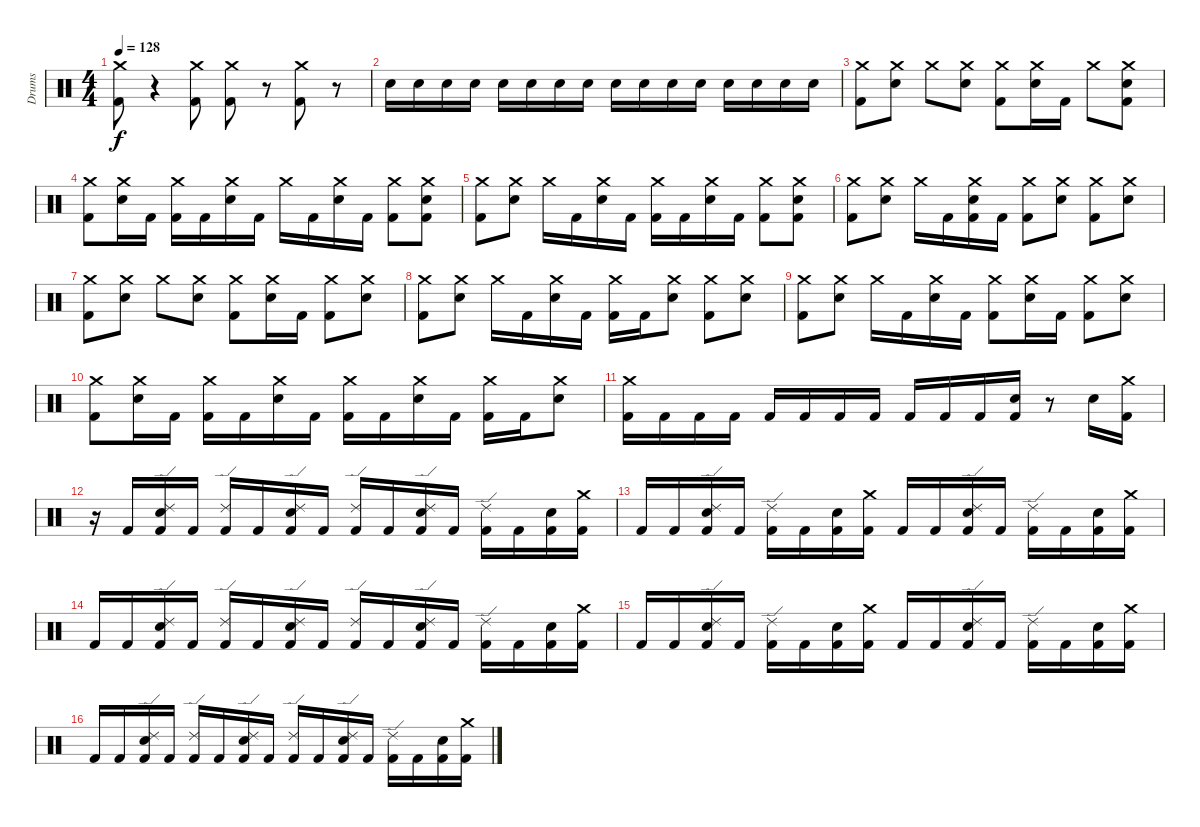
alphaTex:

\track ("Drums" "Drums") {instrument percussion}
\staff {score}
\articulation defaults
\ts (4 4)
\tempo 128
\clef neutral
\ks c
("Crash medium (hit)" "Kick (hit) 2").8{dy f} r.4 ("Crash medium (hit)" "Kick (hit) 2").8 ("Crash medium (hit)" "Kick (hit) 2").8 r.8 ("Crash medium (hit)" "Kick (hit) 2").8 r.8 |
"Snare (hit) 2".16 "Snare (hit) 2".16 "Snare (hit) 2".16 "Snare (hit) 2".16 "Snare (hit) 2".16 "Snare (hit) 2".16 "Snare (hit) 2".16 "Snare (hit) 2".16 "Snare (hit) 2".16 "Snare (hit) 2".16 "Snare (hit) 2".16 "Snare (hit) 2".16 "Snare (hit) 2".16 "Snare (hit) 2".16 "Snare (hit) 2".16 "Snare (hit) 2".16 |
("Crash medium (hit)" "Kick (hit) 2").8 ("Crash medium (hit)" "Snare (hit) 2").8 "Crash medium (hit)".8 ("Crash medium (hit)" "Snare (hit) 2").8 ("Crash medium (hit)" "Kick (hit) 2").8 ("Crash medium (hit)" "Snare (hit) 2").16 "Kick (hit) 2".16 "Crash medium (hit)".8 ("Crash medium (hit)" "Snare (hit) 2" "Kick (hit) 2").8 |
("Crash medium (hit)" "Kick (hit) 2").8 ("Crash medium (hit)" "Snare (hit) 2").16 "Kick (hit) 2".16 ("Crash medium (hit)" "Kick (hit) 2").16 "Kick (hit) 2".16 ("Crash medium (hit)" "Snare (hit) 2").16 "Kick (hit) 2".16 "Crash medium (hit)".16 "Kick (hit) 2".16 ("Crash medium (hit)" "Snare (hit) 2").16 "Kick (hit) 2".16 ("Crash medium (hit)" "Kick (hit) 2").8 ("Crash medium (hit)" "Snare (hit) 2" "Kick (hit) 2").8 |
("Crash medium (hit)" "Kick (hit) 2").8 ("Crash medium (hit)" "Snare (hit) 2").8 "Crash medium (hit)".16 "Kick (hit) 2".16 ("Crash medium (hit)" "Snare (hit) 2").16 "Kick (hit) 2".16 ("Crash medium (hit)" "Kick (hit) 2").16 "Kick (hit) 2".16 ("Crash medium (hit)" "Snare (hit) 2").16 "Kick (hit) 2".16 ("Crash medium (hit)" "Kick (hit) 2").8 ("Crash medium (hit)" "Snare (hit) 2" "Kick (hit) 2").8 |
("Crash medium (hit)" "Kick (hit) 2").8 ("Crash medium (hit)" "Snare (hit) 2").8 "Crash medium (hit)".16 "Kick (hit) 2".16 ("Crash medium (hit)" "Snare (hit) 2" "Kick (hit) 2").16 "Kick (hit) 2".16 ("Crash medium (hit)" "Kick (hit) 2").8 ("Crash medium (hit)" "Snare (hit) 2").8 ("Crash medium (hit)" "Kick (hit) 2").8 ("Crash medium (hit)" "Snare (hit) 2").8 |
("Crash medium (hit)" "Kick (hit) 2").8 ("Crash medium (hit)" "Snare (hit) 2").8 "Crash medium (hit)".8 ("Crash medium (hit)" "Snare (hit) 2").8 ("Crash medium (hit)" "Kick (hit) 2").8 ("Crash medium (hit)" "Snare (hit) 2").16 "Kick (hit) 2".16 ("Crash medium (hit)" "Kick (hit) 2").8 ("Crash medium (hit)" "Snare (hit) 2").8 |
("Crash medium (hit)" "Kick (hit) 2").8 ("Crash medium (hit)" "Snare (hit) 2").8 "Crash medium (hit)".16 "Kick (hit) 2".16 ("Crash medium (hit)" "Snare (hit) 2").16 "Kick (hit) 2".16 ("Crash medium (hit)" "Kick (hit) 2").16 "Kick (hit) 2".16 ("Crash medium (hit)" "Snare (hit) 2").8 ("Crash medium (hit)" "Kick (hit) 2").8 ("Crash medium (hit)" "Snare (hit) 2").8 |
("Crash medium (hit)" "Kick (hit) 2").8 ("Crash medium (hit)" "Snare (hit) 2").8 "Crash medium (hit)".16 "Kick (hit) 2".16 ("Crash medium (hit)" "Snare (hit) 2").16 "Kick (hit) 2".16 ("Crash medium (hit)" "Kick (hit) 2").8 ("Crash medium (hit)" "Snare (hit) 2").16 "Kick (hit) 2".16 ("Crash medium (hit)" "Kick (hit) 2").8 ("Crash medium (hit)" "Snare (hit) 2").8 |
("Crash medium (hit)" "Kick (hit) 2").8 ("Crash medium (hit)" "Snare (hit) 2").16 "Kick (hit) 2".16 ("Crash medium (hit)" "Kick (hit) 2").16 "Kick (hit) 2".16 ("Crash medium (hit)" "Snare (hit) 2").16 "Kick (hit) 2".16 ("Crash medium (hit)" "Kick (hit) 2").16 "Kick (hit) 2".16 ("Crash medium (hit)" "Snare (hit) 2").16 "Kick (hit) 2".16 ("Crash medium (hit)" "Kick (hit) 2").16 "Kick (hit) 2".16 ("Crash medium (hit)" "Snare (hit) 2").8 |
("Crash medium (hit)" "Kick (hit) 2").16 "Kick (hit) 2".16 "Kick (hit) 2".16 "Kick (hit) 2".16 "Kick (hit) 2".16 "Kick (hit) 2".16 "Kick (hit) 2".16 "Kick (hit) 2".16 "Kick (hit) 2".16 "Kick (hit) 2".16 "Kick (hit) 2".16 ("Snare (hit) 2" "Kick (hit) 2").16 r.8 "Snare (hit) 2".16 ("Crash medium (hit)" "Kick (hit) 2").16 |
r.16 "Kick (hit) 2".16 ("Ride (edge) 2" "Snare (hit) 2" "Kick (hit) 2").16 "Kick (hit) 2".16 ("Ride (edge) 2" "Kick (hit) 2").16 "Kick (hit) 2".16 ("Ride (edge) 2" "Snare (hit) 2" "Kick (hit) 2").16 "Kick (hit) 2".16 ("Ride (edge) 2" "Kick (hit) 2").16 "Kick (hit) 2".16 ("Ride (edge) 2" "Snare (hit) 2" "Kick (hit) 2").16 "Kick (hit) 2".16 ("Ride (edge) 2" "Kick (hit) 2").16 "Kick (hit) 2".16 ("Snare (hit) 2" "Kick (hit) 2").16 ("Crash medium (hit)" "Kick (hit) 2").16 |
"Kick (hit) 2".16 "Kick (hit) 2".16 ("Ride (edge) 2" "Snare (hit) 2" "Kick (hit) 2").16 "Kick (hit) 2".16 ("Ride (edge) 2" "Kick (hit) 2").16 "Kick (hit) 2".16 ("Snare (hit) 2" "Kick (hit) 2").16 ("Crash medium (hit)" "Kick (hit) 2").16 "Kick (hit) 2".16 "Kick (hit) 2".16 ("Ride (edge) 2" "Snare (hit) 2" "Kick (hit) 2").16 "Kick (hit) 2".16 ("Ride (edge) 2" "Kick (hit) 2").16 "Kick (hit) 2".16 ("Snare (hit) 2" "Kick (hit) 2").16 ("Crash medium (hit)" "Kick (hit) 2").16 |
"Kick (hit) 2".16 "Kick (hit) 2".16 ("Ride (edge) 2" "Snare (hit) 2" "Kick (hit) 2").16 "Kick (hit) 2".16 ("Ride (edge) 2" "Kick (hit) 2").16 "Kick (hit) 2".16 ("Ride (edge) 2" "Snare (hit) 2" "Kick (hit) 2").16 "Kick (hit) 2".16 ("Ride (edge) 2" "Kick (hit) 2").16 "Kick (hit) 2".16 ("Ride (edge) 2" "Snare (hit) 2" "Kick (hit) 2").16 "Kick (hit) 2".16 ("Ride (edge) 2" "Kick (hit) 2").16 "Kick (hit) 2".16 ("Snare (hit) 2" "Kick (hit) 2").16 ("Crash medium (hit)" "Kick (hit) 2").16 |
"Kick (hit) 2".16 "Kick (hit) 2".16 ("Ride (edge) 2" "Snare (hit) 2" "Kick (hit) 2").16 "Kick (hit) 2".16 ("Ride (edge) 2" "Kick (hit) 2").16 "Kick (hit) 2".16 ("Snare (hit) 2" "Kick (hit) 2").16 ("Crash medium (hit)" "Kick (hit) 2").16 "Kick (hit) 2".16 "Kick (hit) 2".16 ("Ride (edge) 2" "Snare (hit) 2" "Kick (hit) 2").16 "Kick (hit) 2".16 ("Ride (edge) 2" "Kick (hit) 2").16 "Kick (hit) 2".16 ("Snare (hit) 2" "Kick (hit) 2").16 ("Crash medium (hit)" "Kick (hit) 2").16 |
"Kick (hit) 2".16 "Kick (hit) 2".16 ("Ride (edge) 2" "Snare (hit) 2" "Kick (hit) 2").16 "Kick (hit) 2".16 ("Ride (edge) 2" "Kick (hit) 2").16 "Kick (hit) 2".16 ("Ride (edge) 2" "Snare (hit) 2" "Kick (hit) 2").16 "Kick (hit) 2".16 ("Ride (edge) 2" "Kick (hit) 2").16 "Kick (hit) 2".16 ("Ride (edge) 2" "Snare (hit) 2" "Kick (hit) 2").16 "Kick (hit) 2".16 ("Ride (edge) 2" "Kick (hit) 2").16 "Kick (hit) 2".16 ("Snare (hit) 2" "Kick (hit) 2").16 ("Crash medium (hit)" "Kick (hit) 2").16
